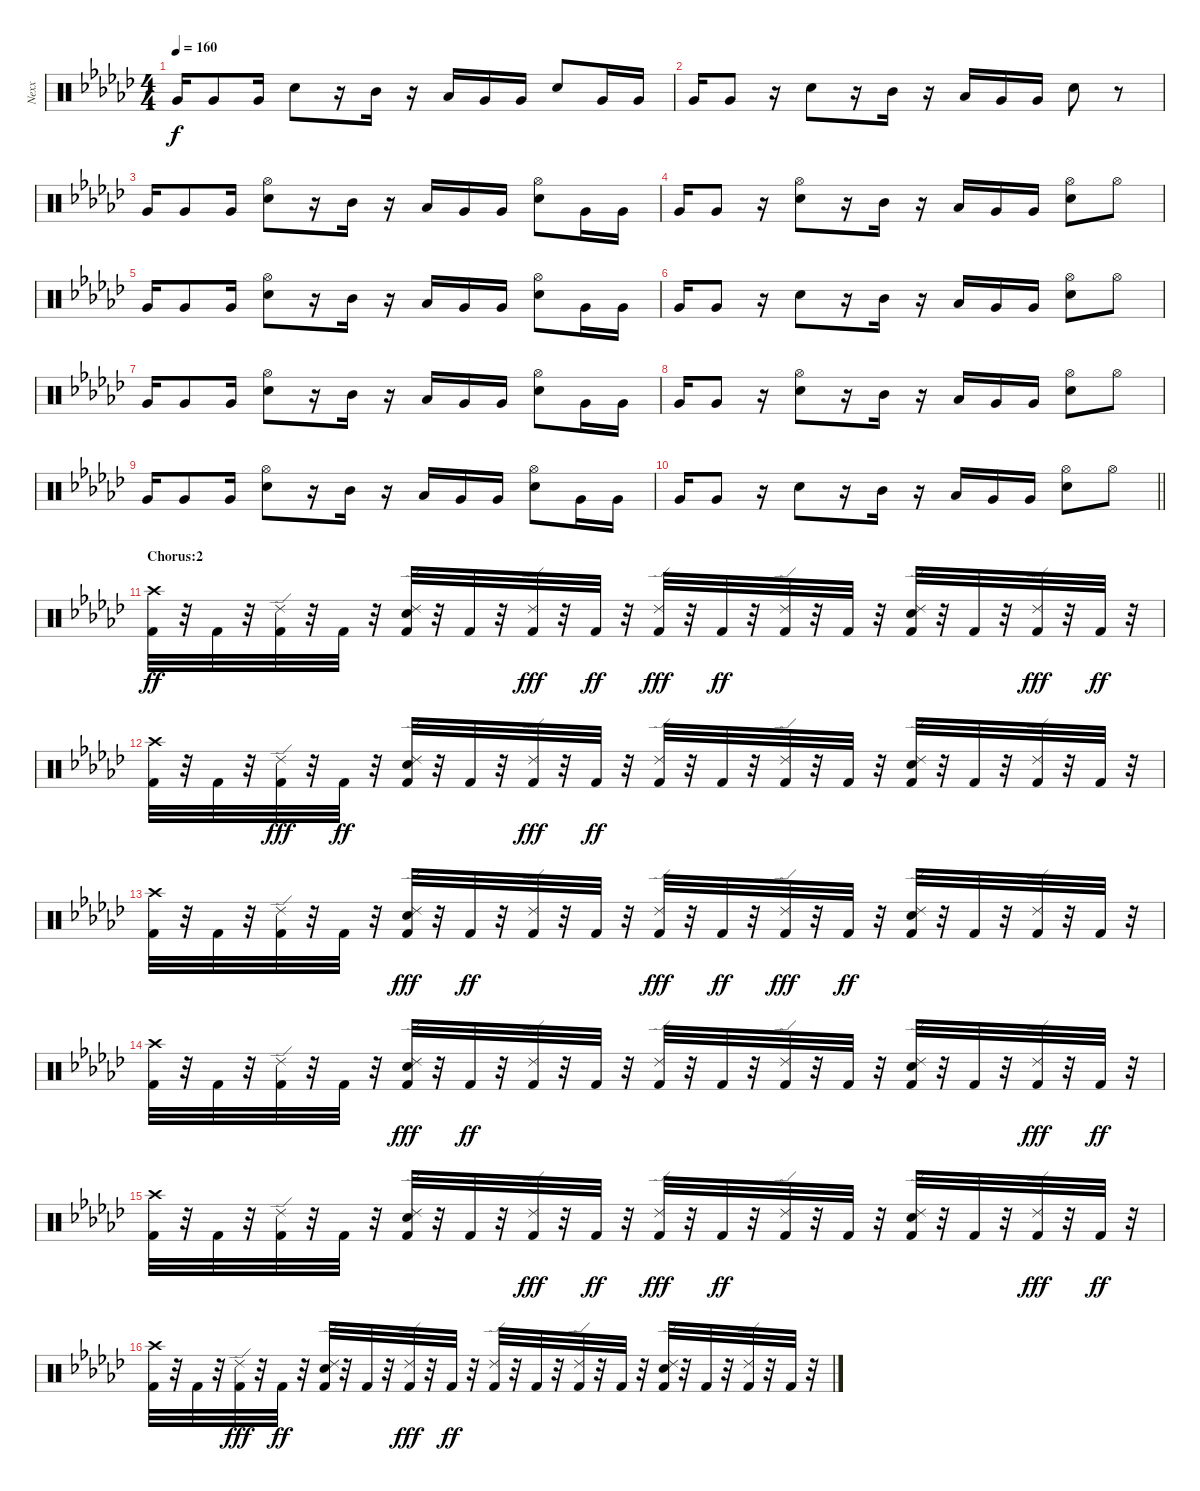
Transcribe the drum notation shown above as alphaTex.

\track ("Nexx" "Nexx") {instrument percussion}
\staff {score}
\articulation defaults
\ts (4 4)
\tempo 160
\clef neutral
\ks ebminor "Very Low Tom (hit)".16{dy f} "Very Low Tom (hit)".8 "Very Low Tom (hit)".16 "Snare (hit) 2".8
r.16 "Mid Tom (hit)".16 r.16 "Low Tom (hit)".16 "Very Low Tom (hit)".16 "Very Low Tom (hit)".16 "Snare (hit) 2".8 "Very Low Tom (hit)".16 "Very Low Tom (hit)".16 |
"Very Low Tom (hit)".16 "Very Low Tom (hit)".8 r.16 "Snare (hit) 2".8 r.16 "Mid Tom (hit)".16 r.16 "Low Tom (hit)".16 "Very Low Tom (hit)".16 "Very Low Tom (hit)".16 "Snare (hit) 2".8 r.8 |
"Very Low Tom (hit)".16 "Very Low Tom (hit)".8 "Very Low Tom (hit)".16 ("Hi-Hat (open)" "Snare (hit) 2").8 r.16 "Mid Tom (hit)".16 r.16 "Low Tom (hit)".16 "Very Low Tom (hit)".16 "Very Low Tom (hit)".16 ("Hi-Hat (open)" "Snare (hit) 2").8 "Very Low Tom (hit)".16 "Very Low Tom (hit)".16 |
"Very Low Tom (hit)".16 "Very Low Tom (hit)".8 r.16 ("Hi-Hat (open)" "Snare (hit) 2").8 r.16 "Mid Tom (hit)".16 r.16 "Low Tom (hit)".16 "Very Low Tom (hit)".16 "Very Low Tom (hit)".16 ("Hi-Hat (open)" "Snare (hit) 2").8 "Hi-Hat (open)".8 |
"Very Low Tom (hit)".16 "Very Low Tom (hit)".8 "Very Low Tom (hit)".16 ("Hi-Hat (open)" "Snare (hit) 2").8 r.16 "Mid Tom (hit)".16 r.16 "Low Tom (hit)".16 "Very Low Tom (hit)".16 "Very Low Tom (hit)".16 ("Hi-Hat (open)" "Snare (hit) 2").8 "Very Low Tom (hit)".16 "Very Low Tom (hit)".16 |
"Very Low Tom (hit)".16 "Very Low Tom (hit)".8 r.16 "Snare (hit) 2".8 r.16 "Mid Tom (hit)".16 r.16 "Low Tom (hit)".16 "Very Low Tom (hit)".16 "Very Low Tom (hit)".16 ("Hi-Hat (open)" "Snare (hit) 2").8 "Hi-Hat (open)".8 |
"Very Low Tom (hit)".16 "Very Low Tom (hit)".8 "Very Low Tom (hit)".16 ("Hi-Hat (open)" "Snare (hit) 2").8 r.16 "Mid Tom (hit)".16 r.16 "Low Tom (hit)".16 "Very Low Tom (hit)".16 "Very Low Tom (hit)".16 ("Hi-Hat (open)" "Snare (hit) 2").8 "Very Low Tom (hit)".16 "Very Low Tom (hit)".16 |
"Very Low Tom (hit)".16 "Very Low Tom (hit)".8 r.16 ("Hi-Hat (open)" "Snare (hit) 2").8 r.16 "Mid Tom (hit)".16 r.16 "Low Tom (hit)".16 "Very Low Tom (hit)".16 "Very Low Tom (hit)".16 ("Hi-Hat (open)" "Snare (hit) 2").8 "Hi-Hat (open)".8 |
"Very Low Tom (hit)".16 "Very Low Tom (hit)".8 "Very Low Tom (hit)".16 ("Hi-Hat (open)" "Snare (hit) 2").8 r.16 "Mid Tom (hit)".16 r.16 "Low Tom (hit)".16 "Very Low Tom (hit)".16 "Very Low Tom (hit)".16 ("Hi-Hat (open)" "Snare (hit) 2").8 "Very Low Tom (hit)".16 "Very Low Tom (hit)".16 |
\barLineRight lightlight "Very Low Tom (hit)".16 "Very Low Tom (hit)".8
r.16 "Snare (hit) 2".8 r.16 "Mid Tom (hit)".16 r.16 "Low Tom (hit)".16 "Very Low Tom (hit)".16 "Very Low Tom (hit)".16 ("Hi-Hat (open)" "Snare (hit) 2").8 "Hi-Hat (open)".8 |
\section ("" "Chorus:2")
("Crash high (hit)" "Kick (hit) 2").32{dy ff volume 13} r.32 "Kick (hit) 2".32 r.32 ("Ride (edge) 2" "Kick (hit) 2").32 r.32 "Kick (hit) 2".32 r.32 ("Kick (hit) 2" "Ride (edge) 2" "Electric Snare (hit)").32 r.32 "Kick (hit) 2".32 r.32 ("Kick (hit) 2" "Ride (edge) 2").32{dy fff} r.32 "Kick (hit) 2".32{dy ff} r.32 ("Kick (hit) 2" "Ride (edge) 2").32{dy fff} r.32 "Kick (hit) 2".32{dy ff} r.32 ("Ride (edge) 2" "Kick (hit) 2").32 r.32 "Kick (hit) 2".32 r.32 ("Electric Snare (hit)" "Ride (edge) 2" "Kick (hit) 2").32 r.32 "Kick (hit) 2".32 r.32 ("Kick (hit) 2" "Ride (edge) 2").32{dy fff} r.32 "Kick (hit) 2".32{dy ff} r.32 |
("Kick (hit) 2" "Crash high (hit)").32 r.32 "Kick (hit) 2".32 r.32 ("Kick (hit) 2" "Ride (edge) 2").32{dy fff} r.32 "Kick (hit) 2".32{dy ff} r.32 ("Electric Snare (hit)" "Ride (edge) 2" "Kick (hit) 2").32 r.32 "Kick (hit) 2".32 r.32 ("Kick (hit) 2" "Ride (edge) 2").32{dy fff} r.32 "Kick (hit) 2".32{dy ff} r.32 ("Ride (edge) 2" "Kick (hit) 2").32 r.32 "Kick (hit) 2".32 r.32 ("Ride (edge) 2" "Kick (hit) 2").32 r.32 "Kick (hit) 2".32 r.32 ("Kick (hit) 2" "Ride (edge) 2" "Electric Snare (hit)").32 r.32 "Kick (hit) 2".32 r.32 ("Ride (edge) 2" "Kick (hit) 2").32 r.32 "Kick (hit) 2".32 r.32 |
("Crash high (hit)" "Kick (hit) 2").32 r.32 "Kick (hit) 2".32 r.32 ("Ride (edge) 2" "Kick (hit) 2").32 r.32 "Kick (hit) 2".32 r.32 ("Kick (hit) 2" "Electric Snare (hit)" "Ride (edge) 2").32{dy fff} r.32 "Kick (hit) 2".32{dy ff} r.32 ("Ride (edge) 2" "Kick (hit) 2").32 r.32 "Kick (hit) 2".32 r.32 ("Kick (hit) 2" "Ride (edge) 2").32{dy fff} r.32 "Kick (hit) 2".32{dy ff} r.32 ("Kick (hit) 2" "Ride (edge) 2").32{dy fff} r.32 "Kick (hit) 2".32{dy ff} r.32 ("Ride (edge) 2" "Electric Snare (hit)" "Kick (hit) 2").32 r.32 "Kick (hit) 2".32 r.32 ("Ride (edge) 2" "Kick (hit) 2").32 r.32 "Kick (hit) 2".32 r.32 |
("Kick (hit) 2" "Crash high (hit)").32 r.32 "Kick (hit) 2".32 r.32 ("Ride (edge) 2" "Kick (hit) 2").32 r.32 "Kick (hit) 2".32 r.32 ("Electric Snare (hit)" "Kick (hit) 2" "Ride (edge) 2").32{dy fff} r.32 "Kick (hit) 2".32{dy ff} r.32 ("Ride (edge) 2" "Kick (hit) 2").32 r.32 "Kick (hit) 2".32 r.32 ("Ride (edge) 2" "Kick (hit) 2").32 r.32 "Kick (hit) 2".32 r.32 ("Ride (edge) 2" "Kick (hit) 2").32 r.32 "Kick (hit) 2".32 r.32 ("Kick (hit) 2" "Ride (edge) 2" "Electric Snare (hit)").32 r.32 "Kick (hit) 2".32 r.32 ("Kick (hit) 2" "Ride (edge) 2").32{dy fff} r.32 "Kick (hit) 2".32{dy ff} r.32 |
("Crash high (hit)" "Kick (hit) 2").32 r.32 "Kick (hit) 2".32 r.32 ("Ride (edge) 2" "Kick (hit) 2").32 r.32 "Kick (hit) 2".32 r.32 ("Kick (hit) 2" "Ride (edge) 2" "Electric Snare (hit)").32 r.32 "Kick (hit) 2".32 r.32 ("Kick (hit) 2" "Ride (edge) 2").32{dy fff} r.32 "Kick (hit) 2".32{dy ff} r.32 ("Kick (hit) 2" "Ride (edge) 2").32{dy fff} r.32 "Kick (hit) 2".32{dy ff} r.32 ("Ride (edge) 2" "Kick (hit) 2").32 r.32 "Kick (hit) 2".32 r.32 ("Electric Snare (hit)" "Ride (edge) 2" "Kick (hit) 2").32 r.32 "Kick (hit) 2".32 r.32 ("Kick (hit) 2" "Ride (edge) 2").32{dy fff} r.32 "Kick (hit) 2".32{dy ff} r.32 |
("Kick (hit) 2" "Crash high (hit)").32 r.32 "Kick (hit) 2".32 r.32 ("Kick (hit) 2" "Ride (edge) 2").32{dy fff} r.32 "Kick (hit) 2".32{dy ff} r.32 ("Electric Snare (hit)" "Ride (edge) 2" "Kick (hit) 2").32 r.32 "Kick (hit) 2".32 r.32 ("Kick (hit) 2" "Ride (edge) 2").32{dy fff} r.32 "Kick (hit) 2".32{dy ff} r.32 ("Ride (edge) 2" "Kick (hit) 2").32 r.32 "Kick (hit) 2".32 r.32 ("Ride (edge) 2" "Kick (hit) 2").32 r.32 "Kick (hit) 2".32 r.32 ("Kick (hit) 2" "Ride (edge) 2" "Electric Snare (hit)").32 r.32 "Kick (hit) 2".32 r.32 ("Ride (edge) 2" "Kick (hit) 2").32 r.32 "Kick (hit) 2".32 r.32
